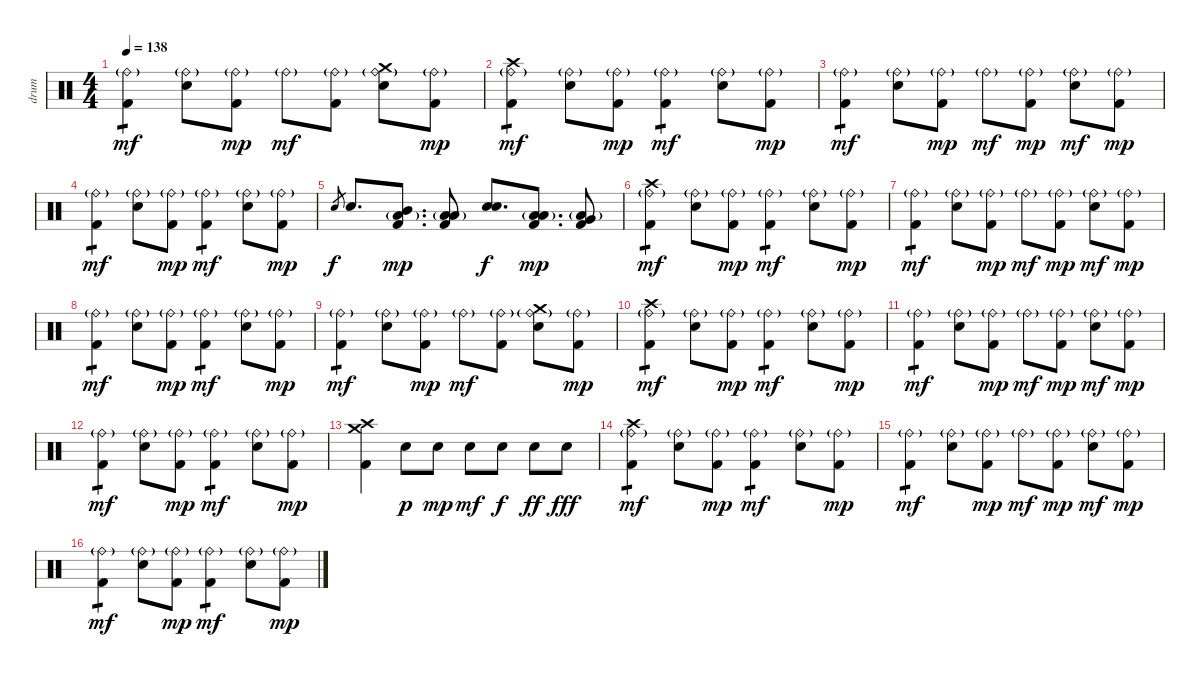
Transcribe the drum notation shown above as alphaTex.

\track ("drum" "drum") {instrument percussion}
\staff {score}
\articulation defaults
\ts (4 4)
\tempo 138
\clef neutral
\ks c
("Ride (bell)"{g} "Kick (hit) 2").4{tp 1 dy mf} ("Ride (bell)"{g} "Snare (hit) 2").8 ("Ride (bell)"{g} "Kick (hit) 2").8{dy mp} "Ride (bell)"{g}.8{dy mf} ("Ride (bell)"{g} "Kick (hit) 2").8 ("Crash medium (hit)" "Ride (bell)"{g} "Snare (hit) 2").8 ("Ride (bell)"{g} "Kick (hit) 2").8{dy mp} |
("Crash high (hit)" "Ride (bell)"{g} "Kick (hit) 2").4{tp 1 dy mf} ("Ride (bell)"{g} "Snare (hit) 2").8 ("Ride (bell)"{g} "Kick (hit) 2").8{dy mp} ("Ride (bell)"{g} "Kick (hit) 2").4{tp 1 dy mf} ("Ride (bell)"{g} "Snare (hit) 2").8 ("Ride (bell)"{g} "Kick (hit) 2").8{dy mp} |
("Ride (bell)"{g} "Kick (hit) 2").4{tp 1 dy mf} ("Ride (bell)"{g} "Snare (hit) 2").8 ("Ride (bell)"{g} "Kick (hit) 2").8{dy mp} "Ride (bell)"{g}.8{dy mf} ("Ride (bell)"{g} "Kick (hit) 2").8{dy mp} ("Ride (bell)"{g} "Snare (hit) 2").8{dy mf} ("Ride (bell)"{g} "Kick (hit) 2").8{dy mp} |
("Ride (bell)"{g} "Kick (hit) 2").4{tp 1 dy mf} ("Ride (bell)"{g} "Snare (hit) 2").8 ("Ride (bell)"{g} "Kick (hit) 2").8{dy mp} ("Ride (bell)"{g} "Kick (hit) 2").4{tp 1 dy mf} ("Ride (bell)"{g} "Snare (hit) 2").8 ("Ride (bell)"{g} "Kick (hit) 2").8{dy mp} |
"Snare (hit) 2".8{gr dy f} "Snare (hit) 2".8{d} ("Low Floor Tom (hit)"{g} "Mid Tom (hit)" "Kick (hit) 2").8{d dy mp} ("Low Floor Tom (hit)"{g} "Low Tom (hit)" "Kick (hit) 2").8 ("Snare (hit) 2" "Snare (hit) 2").8{d bd 240 dy f} ("Low Floor Tom (hit)"{g} "Low Tom (hit)" "Kick (hit) 2").8{d dy mp} ("Low Floor Tom (hit)"{g} "Very Low Tom (hit)" "Kick (hit) 2").8 |
("Crash high (hit)" "Ride (bell)"{g} "Kick (hit) 2").4{tp 1 dy mf} ("Ride (bell)"{g} "Snare (hit) 2").8 ("Ride (bell)"{g} "Kick (hit) 2").8{dy mp} ("Ride (bell)"{g} "Kick (hit) 2").4{tp 1 dy mf} ("Ride (bell)"{g} "Snare (hit) 2").8 ("Ride (bell)"{g} "Kick (hit) 2").8{dy mp} |
("Ride (bell)"{g} "Kick (hit) 2").4{tp 1 dy mf} ("Ride (bell)"{g} "Snare (hit) 2").8 ("Ride (bell)"{g} "Kick (hit) 2").8{dy mp} "Ride (bell)"{g}.8{dy mf} ("Ride (bell)"{g} "Kick (hit) 2").8{dy mp} ("Ride (bell)"{g} "Snare (hit) 2").8{dy mf} ("Ride (bell)"{g} "Kick (hit) 2").8{dy mp} |
("Ride (bell)"{g} "Kick (hit) 2").4{tp 1 dy mf} ("Ride (bell)"{g} "Snare (hit) 2").8 ("Ride (bell)"{g} "Kick (hit) 2").8{dy mp} ("Ride (bell)"{g} "Kick (hit) 2").4{tp 1 dy mf} ("Ride (bell)"{g} "Snare (hit) 2").8 ("Ride (bell)"{g} "Kick (hit) 2").8{dy mp} |
("Ride (bell)"{g} "Kick (hit) 2").4{tp 1 dy mf} ("Ride (bell)"{g} "Snare (hit) 2").8 ("Ride (bell)"{g} "Kick (hit) 2").8{dy mp} "Ride (bell)"{g}.8{dy mf} ("Ride (bell)"{g} "Kick (hit) 2").8 ("Crash medium (hit)" "Ride (bell)"{g} "Snare (hit) 2").8 ("Ride (bell)"{g} "Kick (hit) 2").8{dy mp} |
("Crash high (hit)" "Ride (bell)"{g} "Kick (hit) 2").4{tp 1 dy mf} ("Ride (bell)"{g} "Snare (hit) 2").8 ("Ride (bell)"{g} "Kick (hit) 2").8{dy mp} ("Ride (bell)"{g} "Kick (hit) 2").4{tp 1 dy mf} ("Ride (bell)"{g} "Snare (hit) 2").8 ("Ride (bell)"{g} "Kick (hit) 2").8{dy mp} |
("Ride (bell)"{g} "Kick (hit) 2").4{tp 1 dy mf} ("Ride (bell)"{g} "Snare (hit) 2").8 ("Ride (bell)"{g} "Kick (hit) 2").8{dy mp} "Ride (bell)"{g}.8{dy mf} ("Ride (bell)"{g} "Kick (hit) 2").8{dy mp} ("Ride (bell)"{g} "Snare (hit) 2").8{dy mf} ("Ride (bell)"{g} "Kick (hit) 2").8{dy mp} |
("Ride (bell)"{g} "Kick (hit) 2").4{tp 1 dy mf} ("Ride (bell)"{g} "Snare (hit) 2").8 ("Ride (bell)"{g} "Kick (hit) 2").8{dy mp} ("Ride (bell)"{g} "Kick (hit) 2").4{tp 1 dy mf} ("Ride (bell)"{g} "Snare (hit) 2").8 ("Ride (bell)"{g} "Kick (hit) 2").8{dy mp} |
("Crash high (hit)" "Crash medium (hit)" "Kick (hit) 2").4 "Snare (hit) 2".8{dy p} "Snare (hit) 2".8{dy mp} "Snare (hit) 2".8{dy mf} "Snare (hit) 2".8{dy f} "Snare (hit) 2".8{dy ff} "Snare (hit) 2".8{dy fff} |
("Crash high (hit)" "Ride (bell)"{g} "Kick (hit) 2").4{tp 1 dy mf} ("Ride (bell)"{g} "Snare (hit) 2").8 ("Ride (bell)"{g} "Kick (hit) 2").8{dy mp} ("Ride (bell)"{g} "Kick (hit) 2").4{tp 1 dy mf} ("Ride (bell)"{g} "Snare (hit) 2").8 ("Ride (bell)"{g} "Kick (hit) 2").8{dy mp} |
("Ride (bell)"{g} "Kick (hit) 2").4{tp 1 dy mf} ("Ride (bell)"{g} "Snare (hit) 2").8 ("Ride (bell)"{g} "Kick (hit) 2").8{dy mp} "Ride (bell)"{g}.8{dy mf} ("Ride (bell)"{g} "Kick (hit) 2").8{dy mp} ("Ride (bell)"{g} "Snare (hit) 2").8{dy mf} ("Ride (bell)"{g} "Kick (hit) 2").8{dy mp} |
("Ride (bell)"{g} "Kick (hit) 2").4{tp 1 dy mf} ("Ride (bell)"{g} "Snare (hit) 2").8 ("Ride (bell)"{g} "Kick (hit) 2").8{dy mp} ("Ride (bell)"{g} "Kick (hit) 2").4{tp 1 dy mf} ("Ride (bell)"{g} "Snare (hit) 2").8 ("Ride (bell)"{g} "Kick (hit) 2").8{dy mp}
